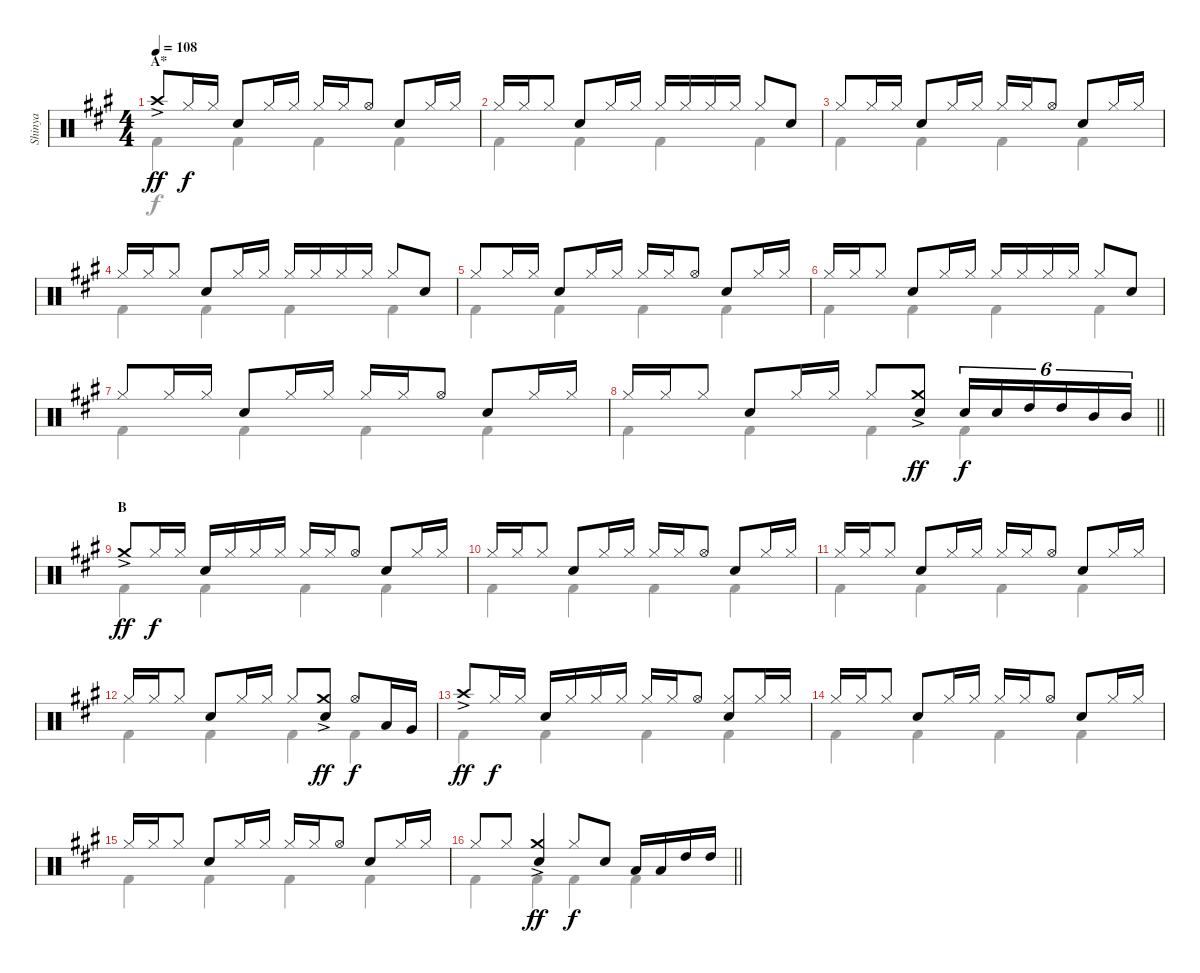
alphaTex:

\track ("Shinya" "Shinya") {instrument percussion}
\staff {score}
\articulation defaults
\voice
\ts (4 4)
\section ("" "A*")
\tempo 108
\clef neutral
\ks f#minor "Crash high (hit)"{ac}.8{dy ff} "Hi-Hat (closed)".16{dy f} "Hi-Hat (closed)".16 "Snare (hit) 2".8 "Hi-Hat (closed)".16 "Hi-Hat (closed)".16 "Hi-Hat (closed)".16 "Hi-Hat (closed)".16 "Hi-Hat (open)".8 "Snare (hit) 2".8 "Hi-Hat (closed)".16 "Hi-Hat (closed)".16
|
"Hi-Hat (closed)".16 "Hi-Hat (closed)".16 "Hi-Hat (closed)".8 "Snare (hit) 2".8 "Hi-Hat (closed)".16 "Hi-Hat (closed)".16 "Hi-Hat (closed)".16 "Hi-Hat (closed)".16 "Hi-Hat (closed)".16 "Hi-Hat (closed)".16 "Hi-Hat (closed)".8 "Snare (hit) 2".8 |
"Hi-Hat (closed)".8 "Hi-Hat (closed)".16 "Hi-Hat (closed)".16 "Snare (hit) 2".8 "Hi-Hat (closed)".16 "Hi-Hat (closed)".16 "Hi-Hat (closed)".16 "Hi-Hat (closed)".16 "Hi-Hat (open)".8 "Snare (hit) 2".8 "Hi-Hat (closed)".16 "Hi-Hat (closed)".16 |
"Hi-Hat (closed)".16 "Hi-Hat (closed)".16 "Hi-Hat (closed)".8 "Snare (hit) 2".8 "Hi-Hat (closed)".16 "Hi-Hat (closed)".16 "Hi-Hat (closed)".16 "Hi-Hat (closed)".16 "Hi-Hat (closed)".16 "Hi-Hat (closed)".16 "Hi-Hat (closed)".8 "Snare (hit) 2".8 |
"Hi-Hat (closed)".8 "Hi-Hat (closed)".16 "Hi-Hat (closed)".16 "Snare (hit) 2".8 "Hi-Hat (closed)".16 "Hi-Hat (closed)".16 "Hi-Hat (closed)".16 "Hi-Hat (closed)".16 "Hi-Hat (open)".8 "Snare (hit) 2".8 "Hi-Hat (closed)".16 "Hi-Hat (closed)".16 |
"Hi-Hat (closed)".16 "Hi-Hat (closed)".16 "Hi-Hat (closed)".8 "Snare (hit) 2".8 "Hi-Hat (closed)".16 "Hi-Hat (closed)".16 "Hi-Hat (closed)".16 "Hi-Hat (closed)".16 "Hi-Hat (closed)".16 "Hi-Hat (closed)".16 "Hi-Hat (closed)".8 "Snare (hit) 2".8 |
"Hi-Hat (closed)".8 "Hi-Hat (closed)".16 "Hi-Hat (closed)".16 "Snare (hit) 2".8 "Hi-Hat (closed)".16 "Hi-Hat (closed)".16 "Hi-Hat (closed)".16 "Hi-Hat (closed)".16 "Hi-Hat (open)".8 "Snare (hit) 2".8 "Hi-Hat (closed)".16 "Hi-Hat (closed)".16 |
\barLineRight lightlight "Hi-Hat (closed)".16 "Hi-Hat (closed)".16 "Hi-Hat (closed)".8 "Snare (hit) 2".8 "Hi-Hat (closed)".16 "Hi-Hat (closed)".16 "Hi-Hat (closed)".8
("Crash medium (hit)"{ac} "Snare (hit) 2").8{dy ff} "Snare (hit) 2".16{tu (6 4) dy f} "Snare (hit) 2".16{tu (6 4)} "High Tom (hit)".16{tu (6 4)} "High Tom (hit)".16{tu (6 4)} "Mid Tom (hit)".16{tu (6 4)} "Mid Tom (hit)".16{tu (6 4)} |
\section ("" "B")
"Crash medium (hit)"{ac}.8{dy ff} "Hi-Hat (closed)".16{dy f} "Hi-Hat (closed)".16 "Snare (hit) 2".16 "Hi-Hat (closed)".16 "Hi-Hat (closed)".16 "Hi-Hat (closed)".16 "Hi-Hat (closed)".16 "Hi-Hat (closed)".16 "Hi-Hat (open)".8 "Snare (hit) 2".8 "Hi-Hat (closed)".16 "Hi-Hat (closed)".16 |
"Hi-Hat (closed)".16 "Hi-Hat (closed)".16 "Hi-Hat (closed)".8 "Snare (hit) 2".8 "Hi-Hat (closed)".16 "Hi-Hat (closed)".16 "Hi-Hat (closed)".16 "Hi-Hat (closed)".16 "Hi-Hat (open)".8 "Snare (hit) 2".8 "Hi-Hat (closed)".16 "Hi-Hat (closed)".16 |
"Hi-Hat (closed)".16 "Hi-Hat (closed)".16 "Hi-Hat (closed)".8 "Snare (hit) 2".8 "Hi-Hat (closed)".16 "Hi-Hat (closed)".16 "Hi-Hat (closed)".16 "Hi-Hat (closed)".16 "Hi-Hat (open)".8 "Snare (hit) 2".8 "Hi-Hat (closed)".16 "Hi-Hat (closed)".16 |
"Hi-Hat (closed)".16 "Hi-Hat (closed)".16 "Hi-Hat (closed)".8 "Snare (hit) 2".8 "Hi-Hat (closed)".16 "Hi-Hat (closed)".16 "Hi-Hat (closed)".8 ("Crash medium (hit)"{ac} "Snare (hit) 2").8{dy ff} "Hi-Hat (open)".8{dy f} "Low Tom (hit)".16 "Very Low Tom (hit)".16 |
"Crash high (hit)"{ac}.8{dy ff} "Hi-Hat (closed)".16{dy f} "Hi-Hat (closed)".16 "Snare (hit) 2".16 "Hi-Hat (closed)".16 "Hi-Hat (closed)".16 "Hi-Hat (closed)".16 "Hi-Hat (closed)".16 "Hi-Hat (closed)".16 "Hi-Hat (open)".8 ("Hi-Hat (closed)" "Snare (hit) 2").8 "Hi-Hat (closed)".16 "Hi-Hat (closed)".16 |
"Hi-Hat (closed)".16 "Hi-Hat (closed)".16 "Hi-Hat (closed)".8 "Snare (hit) 2".8 "Hi-Hat (closed)".16 "Hi-Hat (closed)".16 "Hi-Hat (closed)".16 "Hi-Hat (closed)".16 "Hi-Hat (open)".8 "Snare (hit) 2".8 "Hi-Hat (closed)".16 "Hi-Hat (closed)".16 |
"Hi-Hat (closed)".16 "Hi-Hat (closed)".16 "Hi-Hat (closed)".8 "Snare (hit) 2".8 "Hi-Hat (closed)".16 "Hi-Hat (closed)".16 "Hi-Hat (closed)".16 "Hi-Hat (closed)".16 "Hi-Hat (open)".8 "Snare (hit) 2".8 "Hi-Hat (closed)".16 "Hi-Hat (closed)".16 |
\barLineRight lightlight "Hi-Hat (closed)".8 "Hi-Hat (closed)".8
("Crash medium (hit)"{ac} "Snare (hit) 2").4{dy ff} "Hi-Hat (closed)".8{dy f} "Snare (hit) 2".8 "Low Tom (hit)".16 "Low Tom (hit)".16 "High Tom (hit)".16 "High Tom (hit)".16
\voice
\clef neutral
\ottava regular
\simile none
\ks f#minor "Kick (hit) 2".4{dy f} "Kick (hit) 2".4 "Kick (hit) 2".4 "Kick (hit) 2".4
|
"Kick (hit) 2".4 "Kick (hit) 2".4 "Kick (hit) 2".4 "Kick (hit) 2".4 |
"Kick (hit) 2".4 "Kick (hit) 2".4 "Kick (hit) 2".4 "Kick (hit) 2".4 |
"Kick (hit) 2".4 "Kick (hit) 2".4 "Kick (hit) 2".4 "Kick (hit) 2".4 |
"Kick (hit) 2".4 "Kick (hit) 2".4 "Kick (hit) 2".4 "Kick (hit) 2".4 |
"Kick (hit) 2".4 "Kick (hit) 2".4 "Kick (hit) 2".4 "Kick (hit) 2".4 |
"Kick (hit) 2".4 "Kick (hit) 2".4 "Kick (hit) 2".4 "Kick (hit) 2".4 |
\barLineRight lightlight "Kick (hit) 2".4 "Kick (hit) 2".4 "Kick (hit) 2".4 "Kick (hit) 2".4
|
"Kick (hit) 2".4 "Kick (hit) 2".4 "Kick (hit) 2".4 "Kick (hit) 2".4 |
"Kick (hit) 2".4 "Kick (hit) 2".4 "Kick (hit) 2".4 "Kick (hit) 2".4 |
"Kick (hit) 2".4 "Kick (hit) 2".4 "Kick (hit) 2".4 "Kick (hit) 2".4 |
"Kick (hit) 2".4 "Kick (hit) 2".4 "Kick (hit) 2".4 "Kick (hit) 2".4 |
"Kick (hit) 2".4 "Kick (hit) 2".4 "Kick (hit) 2".4 "Kick (hit) 2".4 |
"Kick (hit) 2".4 "Kick (hit) 2".4 "Kick (hit) 2".4 "Kick (hit) 2".4 |
"Kick (hit) 2".4 "Kick (hit) 2".4 "Kick (hit) 2".4 "Kick (hit) 2".4 |
\barLineRight lightlight "Kick (hit) 2".4 "Kick (hit) 2".4 "Kick (hit) 2".4 "Kick (hit) 2".4
